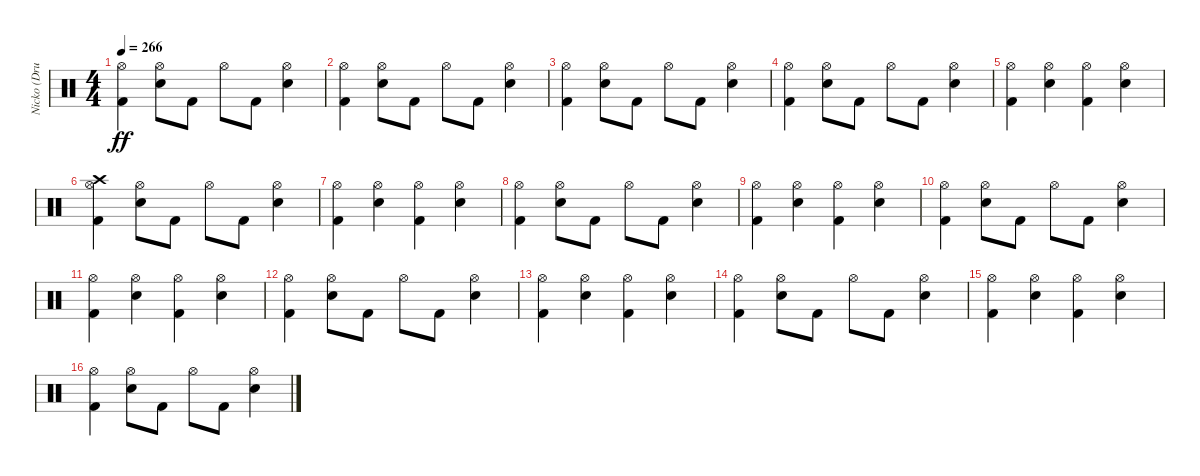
\track ("Nicko (Drums)" "Nicko (Dru") {instrument percussion}
\staff {score}
\articulation defaults
\ts (4 4)
\tempo 266
\clef neutral
\ks c
("Kick (hit) 2" "Hi-Hat (open)").4{dy ff} ("Snare (hit) 2" "Hi-Hat (open)").8 "Kick (hit) 2".8 "Hi-Hat (open)".8 "Kick (hit) 2".8 ("Snare (hit) 2" "Hi-Hat (open)").4 |
("Kick (hit) 2" "Hi-Hat (open)").4 ("Snare (hit) 2" "Hi-Hat (open)").8 "Kick (hit) 2".8 "Hi-Hat (open)".8 "Kick (hit) 2".8 ("Snare (hit) 2" "Hi-Hat (open)").4 |
("Kick (hit) 2" "Hi-Hat (open)").4 ("Snare (hit) 2" "Hi-Hat (open)").8 "Kick (hit) 2".8 "Hi-Hat (open)".8 "Kick (hit) 2".8 ("Snare (hit) 2" "Hi-Hat (open)").4 |
("Kick (hit) 2" "Hi-Hat (open)").4 ("Snare (hit) 2" "Hi-Hat (open)").8 "Kick (hit) 2".8 "Hi-Hat (open)".8 "Kick (hit) 2".8 ("Snare (hit) 2" "Hi-Hat (open)").4 |
("Kick (hit) 2" "Hi-Hat (open)").4 ("Snare (hit) 2" "Hi-Hat (open)").4 ("Kick (hit) 2" "Hi-Hat (open)").4 ("Snare (hit) 2" "Hi-Hat (open)").4 |
("Kick (hit) 2" "Hi-Hat (open)" "Crash high (hit)").4 ("Snare (hit) 2" "Hi-Hat (open)").8 "Kick (hit) 2".8 "Hi-Hat (open)".8 "Kick (hit) 2".8 ("Snare (hit) 2" "Hi-Hat (open)").4 |
("Kick (hit) 2" "Hi-Hat (open)").4 ("Snare (hit) 2" "Hi-Hat (open)").4 ("Kick (hit) 2" "Hi-Hat (open)").4 ("Snare (hit) 2" "Hi-Hat (open)").4 |
("Kick (hit) 2" "Hi-Hat (open)").4 ("Snare (hit) 2" "Hi-Hat (open)").8 "Kick (hit) 2".8 "Hi-Hat (open)".8 "Kick (hit) 2".8 ("Snare (hit) 2" "Hi-Hat (open)").4 |
("Kick (hit) 2" "Hi-Hat (open)").4 ("Snare (hit) 2" "Hi-Hat (open)").4 ("Kick (hit) 2" "Hi-Hat (open)").4 ("Snare (hit) 2" "Hi-Hat (open)").4 |
("Kick (hit) 2" "Hi-Hat (open)").4 ("Snare (hit) 2" "Hi-Hat (open)").8 "Kick (hit) 2".8 "Hi-Hat (open)".8 "Kick (hit) 2".8 ("Snare (hit) 2" "Hi-Hat (open)").4 |
("Kick (hit) 2" "Hi-Hat (open)").4 ("Snare (hit) 2" "Hi-Hat (open)").4 ("Kick (hit) 2" "Hi-Hat (open)").4 ("Snare (hit) 2" "Hi-Hat (open)").4 |
("Kick (hit) 2" "Hi-Hat (open)").4 ("Snare (hit) 2" "Hi-Hat (open)").8 "Kick (hit) 2".8 "Hi-Hat (open)".8 "Kick (hit) 2".8 ("Snare (hit) 2" "Hi-Hat (open)").4 |
("Kick (hit) 2" "Hi-Hat (open)").4 ("Snare (hit) 2" "Hi-Hat (open)").4 ("Kick (hit) 2" "Hi-Hat (open)").4 ("Snare (hit) 2" "Hi-Hat (open)").4 |
("Kick (hit) 2" "Hi-Hat (open)").4 ("Snare (hit) 2" "Hi-Hat (open)").8 "Kick (hit) 2".8 "Hi-Hat (open)".8 "Kick (hit) 2".8 ("Snare (hit) 2" "Hi-Hat (open)").4 |
("Kick (hit) 2" "Hi-Hat (open)").4 ("Snare (hit) 2" "Hi-Hat (open)").4 ("Kick (hit) 2" "Hi-Hat (open)").4 ("Snare (hit) 2" "Hi-Hat (open)").4 |
("Kick (hit) 2" "Hi-Hat (open)").4 ("Snare (hit) 2" "Hi-Hat (open)").8 "Kick (hit) 2".8 "Hi-Hat (open)".8 "Kick (hit) 2".8 ("Snare (hit) 2" "Hi-Hat (open)").4
